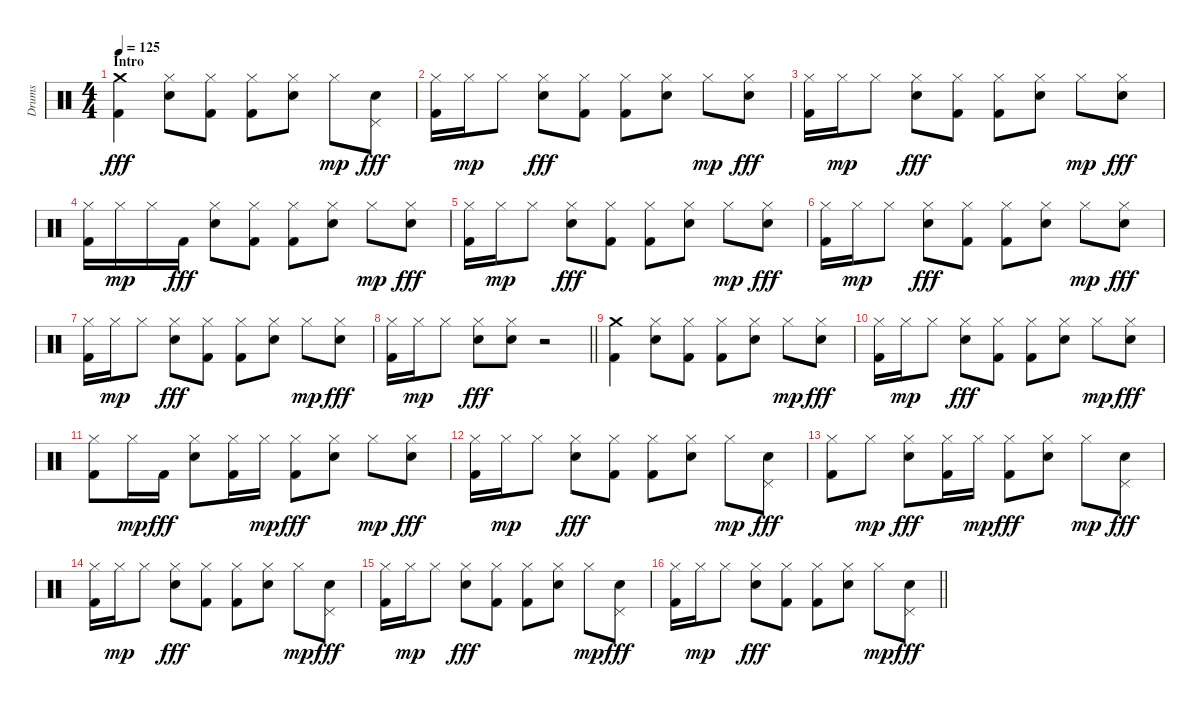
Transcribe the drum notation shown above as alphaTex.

\track ("Drums" "Drums") {instrument percussion}
\staff {score}
\articulation defaults
\ts (4 4)
\section ("" "Intro")
\tempo 125
\clef neutral
\ks c
("Crash medium (hit)" "Kick (hit) 2").4{dy fff} ("Hi-Hat (closed)" "Electric Snare (hit)").8 ("Hi-Hat (closed)" "Kick (hit) 2").8 ("Hi-Hat (closed)" "Kick (hit) 2").8 ("Hi-Hat (closed)" "Electric Snare (hit)").8 "Hi-Hat (closed)".8{dy mp} ("Pedal Hi-Hat (hit)" "Electric Snare (hit)").8{dy fff} |
("Hi-Hat (closed)" "Kick (hit) 2").16 "Hi-Hat (closed)".16{dy mp} "Hi-Hat (closed)".8 ("Hi-Hat (closed)" "Electric Snare (hit)").8{dy fff} ("Hi-Hat (closed)" "Kick (hit) 2").8 ("Hi-Hat (closed)" "Kick (hit) 2").8 ("Hi-Hat (closed)" "Electric Snare (hit)").8 "Hi-Hat (closed)".8{dy mp} ("Hi-Hat (closed)" "Electric Snare (hit)").8{dy fff} |
("Hi-Hat (closed)" "Kick (hit) 2").16 "Hi-Hat (closed)".16{dy mp} "Hi-Hat (closed)".8 ("Hi-Hat (closed)" "Electric Snare (hit)").8{dy fff} ("Hi-Hat (closed)" "Kick (hit) 2").8 ("Hi-Hat (closed)" "Kick (hit) 2").8 ("Hi-Hat (closed)" "Electric Snare (hit)").8 "Hi-Hat (closed)".8{dy mp} ("Hi-Hat (closed)" "Electric Snare (hit)").8{dy fff} |
("Hi-Hat (closed)" "Kick (hit) 2").16 "Hi-Hat (closed)".16{dy mp} "Hi-Hat (closed)".16 "Kick (hit) 2".16{dy fff} ("Hi-Hat (closed)" "Electric Snare (hit)").8 ("Hi-Hat (closed)" "Kick (hit) 2").8 ("Hi-Hat (closed)" "Kick (hit) 2").8 ("Hi-Hat (closed)" "Electric Snare (hit)").8 "Hi-Hat (closed)".8{dy mp} ("Hi-Hat (closed)" "Electric Snare (hit)").8{dy fff} |
("Hi-Hat (closed)" "Kick (hit) 2").16 "Hi-Hat (closed)".16{dy mp} "Hi-Hat (closed)".8 ("Hi-Hat (closed)" "Electric Snare (hit)").8{dy fff} ("Hi-Hat (closed)" "Kick (hit) 2").8 ("Hi-Hat (closed)" "Kick (hit) 2").8 ("Hi-Hat (closed)" "Electric Snare (hit)").8 "Hi-Hat (closed)".8{dy mp} ("Hi-Hat (closed)" "Electric Snare (hit)").8{dy fff} |
("Hi-Hat (closed)" "Kick (hit) 2").16 "Hi-Hat (closed)".16{dy mp} "Hi-Hat (closed)".8 ("Hi-Hat (closed)" "Electric Snare (hit)").8{dy fff} ("Hi-Hat (closed)" "Kick (hit) 2").8 ("Hi-Hat (closed)" "Kick (hit) 2").8 ("Hi-Hat (closed)" "Electric Snare (hit)").8 "Hi-Hat (closed)".8{dy mp} ("Hi-Hat (closed)" "Electric Snare (hit)").8{dy fff} |
("Hi-Hat (closed)" "Kick (hit) 2").16 "Hi-Hat (closed)".16{dy mp} "Hi-Hat (closed)".8 ("Hi-Hat (closed)" "Electric Snare (hit)").8{dy fff} ("Hi-Hat (closed)" "Kick (hit) 2").8 ("Hi-Hat (closed)" "Kick (hit) 2").8 ("Hi-Hat (closed)" "Electric Snare (hit)").8 "Hi-Hat (closed)".8{dy mp} ("Hi-Hat (closed)" "Electric Snare (hit)").8{dy fff} |
\barLineRight lightlight
("Hi-Hat (closed)" "Kick (hit) 2").16 "Hi-Hat (closed)".16{dy mp} "Hi-Hat (closed)".8 ("Hi-Hat (closed)" "Electric Snare (hit)").8{dy fff} ("Hi-Hat (closed)" "Electric Snare (hit)").8 r.2 |
("Crash medium (hit)" "Kick (hit) 2").4 ("Hi-Hat (closed)" "Electric Snare (hit)").8 ("Hi-Hat (closed)" "Kick (hit) 2").8 ("Hi-Hat (closed)" "Kick (hit) 2").8 ("Hi-Hat (closed)" "Electric Snare (hit)").8 "Hi-Hat (closed)".8{dy mp} ("Hi-Hat (closed)" "Electric Snare (hit)").8{dy fff} |
("Hi-Hat (closed)" "Kick (hit) 2").16 "Hi-Hat (closed)".16{dy mp} "Hi-Hat (closed)".8 ("Hi-Hat (closed)" "Electric Snare (hit)").8{dy fff} ("Hi-Hat (closed)" "Kick (hit) 2").8 ("Hi-Hat (closed)" "Kick (hit) 2").8 ("Hi-Hat (closed)" "Electric Snare (hit)").8 "Hi-Hat (closed)".8{dy mp} ("Hi-Hat (closed)" "Electric Snare (hit)").8{dy fff} |
("Hi-Hat (closed)" "Kick (hit) 2").8 "Hi-Hat (closed)".16{dy mp} "Kick (hit) 2".16{dy fff} ("Hi-Hat (closed)" "Electric Snare (hit)").8 ("Hi-Hat (closed)" "Kick (hit) 2").16 "Hi-Hat (closed)".16{dy mp} ("Hi-Hat (closed)" "Kick (hit) 2").8{dy fff} ("Hi-Hat (closed)" "Electric Snare (hit)").8 "Hi-Hat (closed)".8{dy mp} ("Hi-Hat (closed)" "Electric Snare (hit)").8{dy fff} |
("Hi-Hat (closed)" "Kick (hit) 2").16 "Hi-Hat (closed)".16{dy mp} "Hi-Hat (closed)".8 ("Hi-Hat (closed)" "Electric Snare (hit)").8{dy fff} ("Hi-Hat (closed)" "Kick (hit) 2").8 ("Hi-Hat (closed)" "Kick (hit) 2").8 ("Hi-Hat (closed)" "Electric Snare (hit)").8 "Hi-Hat (closed)".8{dy mp} ("Pedal Hi-Hat (hit)" "Electric Snare (hit)").8{dy fff} |
("Hi-Hat (closed)" "Kick (hit) 2").8 "Hi-Hat (closed)".8{dy mp} ("Hi-Hat (closed)" "Electric Snare (hit)").8{dy fff} ("Hi-Hat (closed)" "Kick (hit) 2").16 "Hi-Hat (closed)".16{dy mp} ("Hi-Hat (closed)" "Kick (hit) 2").8{dy fff} ("Hi-Hat (closed)" "Electric Snare (hit)").8 "Hi-Hat (closed)".8{dy mp} ("Pedal Hi-Hat (hit)" "Electric Snare (hit)").8{dy fff} |
("Hi-Hat (closed)" "Kick (hit) 2").16 "Hi-Hat (closed)".16{dy mp} "Hi-Hat (closed)".8 ("Hi-Hat (closed)" "Electric Snare (hit)").8{dy fff} ("Hi-Hat (closed)" "Kick (hit) 2").8 ("Hi-Hat (closed)" "Kick (hit) 2").8 ("Hi-Hat (closed)" "Electric Snare (hit)").8 "Hi-Hat (closed)".8{dy mp} ("Pedal Hi-Hat (hit)" "Electric Snare (hit)").8{dy fff} |
("Hi-Hat (closed)" "Kick (hit) 2").16 "Hi-Hat (closed)".16{dy mp} "Hi-Hat (closed)".8 ("Hi-Hat (closed)" "Electric Snare (hit)").8{dy fff} ("Hi-Hat (closed)" "Kick (hit) 2").8 ("Hi-Hat (closed)" "Kick (hit) 2").8 ("Hi-Hat (closed)" "Electric Snare (hit)").8 "Hi-Hat (closed)".8{dy mp} ("Pedal Hi-Hat (hit)" "Electric Snare (hit)").8{dy fff} |
\barLineRight lightlight
("Hi-Hat (closed)" "Kick (hit) 2").16 "Hi-Hat (closed)".16{dy mp} "Hi-Hat (closed)".8 ("Hi-Hat (closed)" "Electric Snare (hit)").8{dy fff} ("Hi-Hat (closed)" "Kick (hit) 2").8 ("Hi-Hat (closed)" "Kick (hit) 2").8 ("Hi-Hat (closed)" "Electric Snare (hit)").8 "Hi-Hat (closed)".8{dy mp} ("Pedal Hi-Hat (hit)" "Electric Snare (hit)").8{dy fff}
